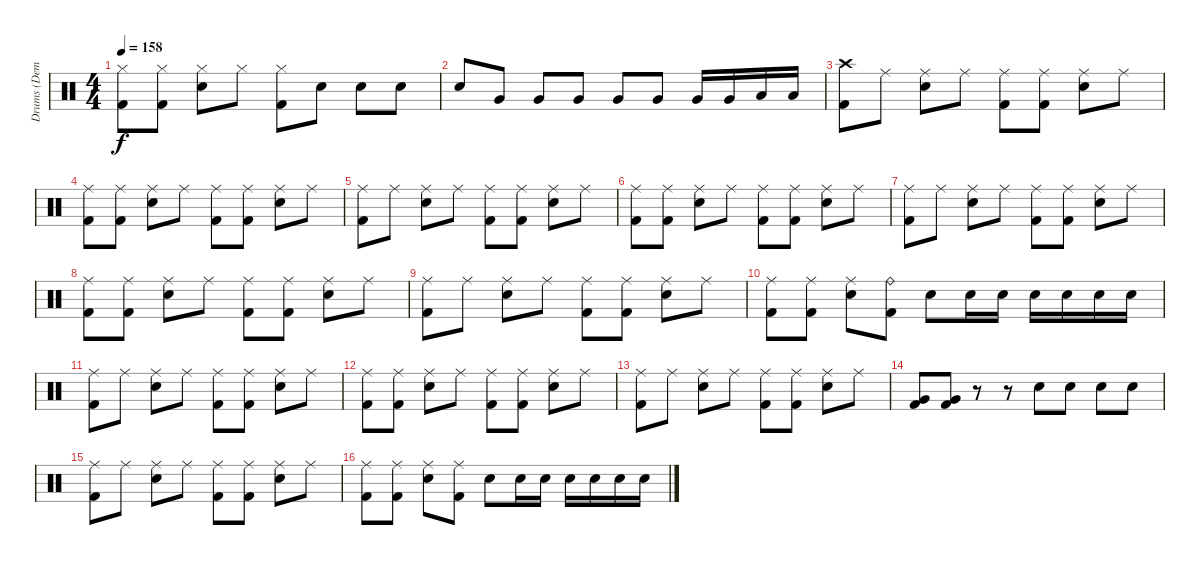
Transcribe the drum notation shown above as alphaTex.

\track ("Drums (Demetra)" "Drums (Dem") {instrument percussion}
\staff {score}
\articulation defaults
\ts (4 4)
\tempo 158
\clef neutral
\ks c
("Hi-Hat (closed)" "Kick (hit) 2").8{dy f} ("Hi-Hat (closed)" "Kick (hit) 2").8 ("Hi-Hat (closed)" "Snare (hit) 2").8 "Hi-Hat (closed)".8 ("Hi-Hat (closed)" "Kick (hit) 2").8 "Snare (hit) 2".8 "Snare (hit) 2".8 "Snare (hit) 2".8 |
"Snare (hit) 2".8 "Very Low Tom (hit)".8 "Very Low Tom (hit)".8 "Very Low Tom (hit)".8 "Very Low Tom (hit)".8 "Very Low Tom (hit)".8 "Very Low Tom (hit)".16 "Very Low Tom (hit)".16 "Low Floor Tom (hit)".16 "Low Floor Tom (hit)".16 |
("Crash high (hit)" "Kick (hit) 2").8 "Ride (middle)".8 ("Ride (middle)" "Snare (hit) 2").8 "Ride (middle)".8 ("Ride (middle)" "Kick (hit) 2").8 ("Ride (middle)" "Kick (hit) 2").8 ("Ride (middle)" "Snare (hit) 2").8 "Ride (middle)".8 |
("Ride (middle)" "Kick (hit) 2").8 ("Ride (middle)" "Kick (hit) 2").8 ("Ride (middle)" "Snare (hit) 2").8 "Ride (middle)".8 ("Ride (middle)" "Kick (hit) 2").8 ("Ride (middle)" "Kick (hit) 2").8 ("Ride (middle)" "Snare (hit) 2").8 "Ride (middle)".8 |
("Ride (middle)" "Kick (hit) 2").8 "Ride (middle)".8 ("Ride (middle)" "Snare (hit) 2").8 "Ride (middle)".8 ("Ride (middle)" "Kick (hit) 2").8 ("Ride (middle)" "Kick (hit) 2").8 ("Ride (middle)" "Snare (hit) 2").8 "Ride (middle)".8 |
("Ride (middle)" "Kick (hit) 2").8 ("Ride (middle)" "Kick (hit) 2").8 ("Ride (middle)" "Snare (hit) 2").8 "Ride (middle)".8 ("Ride (middle)" "Kick (hit) 2").8 ("Ride (middle)" "Kick (hit) 2").8 ("Ride (middle)" "Snare (hit) 2").8 "Ride (middle)".8 |
("Ride (middle)" "Kick (hit) 2").8 "Ride (middle)".8 ("Ride (middle)" "Snare (hit) 2").8 "Ride (middle)".8 ("Ride (middle)" "Kick (hit) 2").8 ("Ride (middle)" "Kick (hit) 2").8 ("Ride (middle)" "Snare (hit) 2").8 "Ride (middle)".8 |
("Ride (middle)" "Kick (hit) 2").8 ("Ride (middle)" "Kick (hit) 2").8 ("Ride (middle)" "Snare (hit) 2").8 "Ride (middle)".8 ("Ride (middle)" "Kick (hit) 2").8 ("Ride (middle)" "Kick (hit) 2").8 ("Ride (middle)" "Snare (hit) 2").8 "Ride (middle)".8 |
("Ride (middle)" "Kick (hit) 2").8 "Ride (middle)".8 ("Ride (middle)" "Snare (hit) 2").8 "Ride (middle)".8 ("Ride (middle)" "Kick (hit) 2").8 ("Ride (middle)" "Kick (hit) 2").8 ("Ride (middle)" "Snare (hit) 2").8 "Ride (middle)".8 |
("Ride (middle)" "Kick (hit) 2").8 ("Ride (middle)" "Kick (hit) 2").8 ("Ride (middle)" "Snare (hit) 2").8 ("Ride (bell)" "Kick (hit) 2").8 "Snare (hit) 2".8 "Snare (hit) 2".16 "Snare (hit) 2".16 "Snare (hit) 2".16 "Snare (hit) 2".16 "Snare (hit) 2".16 "Snare (hit) 2".16 |
("Ride (middle)" "Kick (hit) 2").8 "Ride (middle)".8 ("Ride (middle)" "Snare (hit) 2").8 "Ride (middle)".8 ("Ride (middle)" "Kick (hit) 2").8 ("Ride (middle)" "Kick (hit) 2").8 ("Ride (middle)" "Snare (hit) 2").8 "Ride (middle)".8 |
("Ride (middle)" "Kick (hit) 2").8 ("Ride (middle)" "Kick (hit) 2").8 ("Ride (middle)" "Snare (hit) 2").8 "Ride (middle)".8 ("Ride (middle)" "Kick (hit) 2").8 ("Ride (middle)" "Kick (hit) 2").8 ("Ride (middle)" "Snare (hit) 2").8 "Ride (middle)".8 |
("Ride (middle)" "Kick (hit) 2").8 "Ride (middle)".8 ("Ride (middle)" "Snare (hit) 2").8 "Ride (middle)".8 ("Ride (middle)" "Kick (hit) 2").8 ("Ride (middle)" "Kick (hit) 2").8 ("Ride (middle)" "Snare (hit) 2").8 "Ride (middle)".8 |
("Very Low Tom (hit)" "Kick (hit) 2").8 ("Very Low Tom (hit)" "Kick (hit) 2").8 r.8 r.8 "Snare (hit) 2".8 "Snare (hit) 2".8 "Snare (hit) 2".8 "Snare (hit) 2".8 |
("Ride (middle)" "Kick (hit) 2").8 "Ride (middle)".8 ("Ride (middle)" "Snare (hit) 2").8 "Ride (middle)".8 ("Ride (middle)" "Kick (hit) 2").8 ("Ride (middle)" "Kick (hit) 2").8 ("Ride (middle)" "Snare (hit) 2").8 "Ride (middle)".8 |
("Ride (middle)" "Kick (hit) 2").8 ("Ride (middle)" "Kick (hit) 2").8 ("Ride (middle)" "Snare (hit) 2").8 ("Ride (middle)" "Kick (hit) 2").8 "Snare (hit) 2".8 "Snare (hit) 2".16 "Snare (hit) 2".16 "Snare (hit) 2".16 "Snare (hit) 2".16 "Snare (hit) 2".16 "Snare (hit) 2".16
